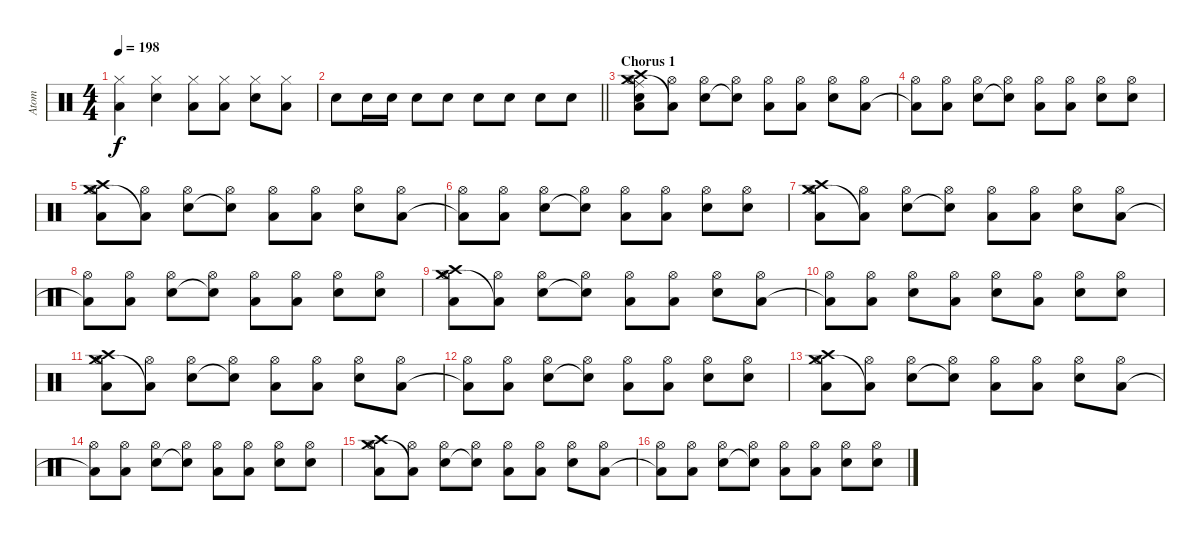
\track ("Atom" "Atom") {instrument percussion}
\staff
\articulation defaults
\ts (4 4)
\tempo 198
\clef neutral
\ks c
("Low Floor Tom (hit)" "Hi-Hat (closed)").4{dy f} ("Snare (hit) 2" "Hi-Hat (closed)").4 ("Low Floor Tom (hit)" "Hi-Hat (closed)").8 ("Low Floor Tom (hit)" "Hi-Hat (closed)").8 ("Snare (hit) 2" "Hi-Hat (closed)").8 ("Low Floor Tom (hit)" "Hi-Hat (closed)").8 |
\barLineRight lightlight "Snare (hit) 2".8 "Snare (hit) 2".16 "Snare (hit) 2".16 "Snare (hit) 2".8 "Snare (hit) 2".8 "Snare (hit) 2".8 "Snare (hit) 2".8 "Snare (hit) 2".8 "Snare (hit) 2".8
|
\section ("" "Chorus 1")
("Crash medium (hit)" "Low Floor Tom (hit)" "Hi-Hat (open)" "Crash high (hit)" "Ride (middle)" "Snare (hit) 2").8 ("Low Floor Tom (hit)"{t} "Hi-Hat (open)").8 ("Snare (hit) 2" "Hi-Hat (open)").8 ("Snare (hit) 2"{t} "Hi-Hat (open)").8 ("Low Floor Tom (hit)" "Hi-Hat (open)").8 ("Low Floor Tom (hit)" "Hi-Hat (open)").8 ("Snare (hit) 2" "Hi-Hat (open)").8 ("Low Floor Tom (hit)" "Hi-Hat (open)").8 |
("Low Floor Tom (hit)"{t} "Hi-Hat (open)").8 ("Low Floor Tom (hit)" "Hi-Hat (open)").8 ("Snare (hit) 2" "Hi-Hat (open)").8 ("Snare (hit) 2"{t} "Hi-Hat (open)").8 ("Low Floor Tom (hit)" "Hi-Hat (open)").8 ("Low Floor Tom (hit)" "Hi-Hat (open)").8 ("Snare (hit) 2" "Hi-Hat (open)").8 ("Snare (hit) 2" "Hi-Hat (open)").8 |
("Crash medium (hit)" "Low Floor Tom (hit)" "Hi-Hat (open)" "Crash high (hit)").8 ("Low Floor Tom (hit)"{t} "Hi-Hat (open)").8 ("Snare (hit) 2" "Hi-Hat (open)").8 ("Snare (hit) 2"{t} "Hi-Hat (open)").8 ("Low Floor Tom (hit)" "Hi-Hat (open)").8 ("Low Floor Tom (hit)" "Hi-Hat (open)").8 ("Snare (hit) 2" "Hi-Hat (open)").8 ("Low Floor Tom (hit)" "Hi-Hat (open)").8 |
("Low Floor Tom (hit)"{t} "Hi-Hat (open)").8 ("Low Floor Tom (hit)" "Hi-Hat (open)").8 ("Snare (hit) 2" "Hi-Hat (open)").8 ("Snare (hit) 2"{t} "Hi-Hat (open)").8 ("Low Floor Tom (hit)" "Hi-Hat (open)").8 ("Low Floor Tom (hit)" "Hi-Hat (open)").8 ("Snare (hit) 2" "Hi-Hat (open)").8 ("Snare (hit) 2" "Hi-Hat (open)").8 |
("Crash medium (hit)" "Low Floor Tom (hit)" "Hi-Hat (open)" "Crash high (hit)").8 ("Low Floor Tom (hit)"{t} "Hi-Hat (open)").8 ("Snare (hit) 2" "Hi-Hat (open)").8 ("Snare (hit) 2"{t} "Hi-Hat (open)").8 ("Low Floor Tom (hit)" "Hi-Hat (open)").8 ("Low Floor Tom (hit)" "Hi-Hat (open)").8 ("Snare (hit) 2" "Hi-Hat (open)").8 ("Low Floor Tom (hit)" "Hi-Hat (open)").8 |
("Low Floor Tom (hit)"{t} "Hi-Hat (open)").8 ("Low Floor Tom (hit)" "Hi-Hat (open)").8 ("Snare (hit) 2" "Hi-Hat (open)").8 ("Snare (hit) 2"{t} "Hi-Hat (open)").8 ("Low Floor Tom (hit)" "Hi-Hat (open)").8 ("Low Floor Tom (hit)" "Hi-Hat (open)").8 ("Snare (hit) 2" "Hi-Hat (open)").8 ("Snare (hit) 2" "Hi-Hat (open)").8 |
("Crash medium (hit)" "Low Floor Tom (hit)" "Hi-Hat (open)" "Crash high (hit)").8 ("Low Floor Tom (hit)"{t} "Hi-Hat (open)").8 ("Snare (hit) 2" "Hi-Hat (open)").8 ("Snare (hit) 2"{t} "Hi-Hat (open)").8 ("Low Floor Tom (hit)" "Hi-Hat (open)").8 ("Low Floor Tom (hit)" "Hi-Hat (open)").8 ("Snare (hit) 2" "Hi-Hat (open)").8 ("Low Floor Tom (hit)" "Hi-Hat (open)").8 |
("Low Floor Tom (hit)"{t} "Hi-Hat (open)").8 ("Low Floor Tom (hit)" "Hi-Hat (open)").8 ("Snare (hit) 2" "Hi-Hat (open)").8 ("Low Floor Tom (hit)" "Hi-Hat (open)").8 ("Snare (hit) 2" "Hi-Hat (open)").8 ("Low Floor Tom (hit)" "Hi-Hat (open)").8 ("Snare (hit) 2" "Hi-Hat (open)").8 ("Snare (hit) 2" "Hi-Hat (open)").8 |
("Crash medium (hit)" "Low Floor Tom (hit)" "Hi-Hat (open)" "Crash high (hit)").8 ("Low Floor Tom (hit)"{t} "Hi-Hat (open)").8 ("Snare (hit) 2" "Hi-Hat (open)").8 ("Snare (hit) 2"{t} "Hi-Hat (open)").8 ("Low Floor Tom (hit)" "Hi-Hat (open)").8 ("Low Floor Tom (hit)" "Hi-Hat (open)").8 ("Snare (hit) 2" "Hi-Hat (open)").8 ("Low Floor Tom (hit)" "Hi-Hat (open)").8 |
("Low Floor Tom (hit)"{t} "Hi-Hat (open)").8 ("Low Floor Tom (hit)" "Hi-Hat (open)").8 ("Snare (hit) 2" "Hi-Hat (open)").8 ("Snare (hit) 2"{t} "Hi-Hat (open)").8 ("Low Floor Tom (hit)" "Hi-Hat (open)").8 ("Low Floor Tom (hit)" "Hi-Hat (open)").8 ("Snare (hit) 2" "Hi-Hat (open)").8 ("Snare (hit) 2" "Hi-Hat (open)").8 |
("Crash medium (hit)" "Low Floor Tom (hit)" "Hi-Hat (open)" "Crash high (hit)").8 ("Low Floor Tom (hit)"{t} "Hi-Hat (open)").8 ("Snare (hit) 2" "Hi-Hat (open)").8 ("Snare (hit) 2"{t} "Hi-Hat (open)").8 ("Low Floor Tom (hit)" "Hi-Hat (open)").8 ("Low Floor Tom (hit)" "Hi-Hat (open)").8 ("Snare (hit) 2" "Hi-Hat (open)").8 ("Low Floor Tom (hit)" "Hi-Hat (open)").8 |
("Low Floor Tom (hit)"{t} "Hi-Hat (open)").8 ("Low Floor Tom (hit)" "Hi-Hat (open)").8 ("Snare (hit) 2" "Hi-Hat (open)").8 ("Snare (hit) 2"{t} "Hi-Hat (open)").8 ("Low Floor Tom (hit)" "Hi-Hat (open)").8 ("Low Floor Tom (hit)" "Hi-Hat (open)").8 ("Snare (hit) 2" "Hi-Hat (open)").8 ("Snare (hit) 2" "Hi-Hat (open)").8 |
("Crash medium (hit)" "Low Floor Tom (hit)" "Hi-Hat (open)" "Crash high (hit)").8 ("Low Floor Tom (hit)"{t} "Hi-Hat (open)").8 ("Snare (hit) 2" "Hi-Hat (open)").8 ("Snare (hit) 2"{t} "Hi-Hat (open)").8 ("Low Floor Tom (hit)" "Hi-Hat (open)").8 ("Low Floor Tom (hit)" "Hi-Hat (open)").8 ("Snare (hit) 2" "Hi-Hat (open)").8 ("Low Floor Tom (hit)" "Hi-Hat (open)").8 |
("Low Floor Tom (hit)"{t} "Hi-Hat (open)").8 ("Low Floor Tom (hit)" "Hi-Hat (open)").8 ("Snare (hit) 2" "Hi-Hat (open)").8 ("Snare (hit) 2"{t} "Hi-Hat (open)").8 ("Low Floor Tom (hit)" "Hi-Hat (open)").8 ("Low Floor Tom (hit)" "Hi-Hat (open)").8 ("Snare (hit) 2" "Hi-Hat (open)").8 ("Snare (hit) 2" "Hi-Hat (open)").8
